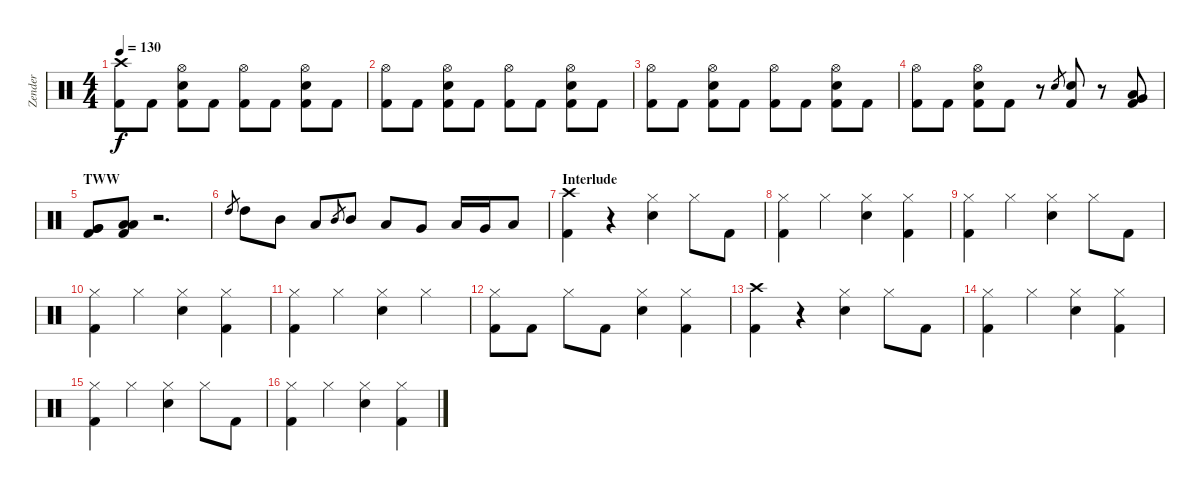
\track ("Zender" "Zender") {instrument percussion}
\staff {score}
\articulation defaults
\ts (4 4)
\tempo 130
\clef neutral
\ks c
("Crash high (hit)" "Kick (hit) 2").8{dy f} "Kick (hit) 2".8 ("Electric Snare (hit)" "Hi-Hat (open)" "Kick (hit) 2").8 "Kick (hit) 2".8 ("Hi-Hat (open)" "Kick (hit) 2").8 "Kick (hit) 2".8 ("Electric Snare (hit)" "Hi-Hat (open)" "Kick (hit) 2").8 "Kick (hit) 2".8 |
("Hi-Hat (open)" "Kick (hit) 2").8 "Kick (hit) 2".8 ("Electric Snare (hit)" "Hi-Hat (open)" "Kick (hit) 2").8 "Kick (hit) 2".8 ("Hi-Hat (open)" "Kick (hit) 2").8 "Kick (hit) 2".8 ("Electric Snare (hit)" "Hi-Hat (open)" "Kick (hit) 2").8 "Kick (hit) 2".8 |
("Hi-Hat (open)" "Kick (hit) 2").8 "Kick (hit) 2".8 ("Electric Snare (hit)" "Hi-Hat (open)" "Kick (hit) 2").8 "Kick (hit) 2".8 ("Hi-Hat (open)" "Kick (hit) 2").8 "Kick (hit) 2".8 ("Electric Snare (hit)" "Hi-Hat (open)" "Kick (hit) 2").8 "Kick (hit) 2".8 |
("Hi-Hat (open)" "Kick (hit) 2").8 "Kick (hit) 2".8 ("Electric Snare (hit)" "Hi-Hat (open)" "Kick (hit) 2").8 "Kick (hit) 2".8 r.8 "Electric Snare (hit)".8{gr} ("Electric Snare (hit)" "Kick (hit) 2").8 r.8 ("Low Tom (hit)" "Very Low Tom (hit)" "Kick (hit) 2").8 |
\section ("" "TWW")
("Very Low Tom (hit)" "Very Low Tom (hit)" "Kick (hit) 2").8 ("Low Floor Tom (hit)" "Low Floor Tom (hit)" "Kick (hit) 2").8 r.2{d} |
"High Tom (hit)".8{gr} "High Tom (hit)".8{volume 11} "Mid Tom (hit)".8 "Low Tom (hit)".8 "Mid Tom (hit)".8{gr} "Mid Tom (hit)".8 "Low Tom (hit)".8 "Very Low Tom (hit)".8 "Low Floor Tom (hit)".16 "Very Low Tom (hit)".16 "Low Floor Tom (hit)".8 |
\section ("" "Interlude")
("Crash high (hit)" "Kick (hit) 2").4 r.4 ("Electric Snare (hit)" "Hi-Hat (closed)").4 "Hi-Hat (closed)".8 "Kick (hit) 2".8 |
("Hi-Hat (closed)" "Kick (hit) 2").4 "Hi-Hat (closed)".4 ("Electric Snare (hit)" "Hi-Hat (closed)").4 ("Hi-Hat (closed)" "Kick (hit) 2").4 |
("Hi-Hat (closed)" "Kick (hit) 2").4 "Hi-Hat (closed)".4 ("Electric Snare (hit)" "Hi-Hat (closed)").4 "Hi-Hat (closed)".8 "Kick (hit) 2".8 |
("Hi-Hat (closed)" "Kick (hit) 2").4 "Hi-Hat (closed)".4 ("Electric Snare (hit)" "Hi-Hat (closed)").4 ("Hi-Hat (closed)" "Kick (hit) 2").4 |
("Hi-Hat (closed)" "Kick (hit) 2").4 "Hi-Hat (closed)".4 ("Electric Snare (hit)" "Hi-Hat (closed)").4 "Hi-Hat (closed)".4 |
("Hi-Hat (closed)" "Kick (hit) 2").8 "Kick (hit) 2".8 "Hi-Hat (closed)".8 "Kick (hit) 2".8 ("Electric Snare (hit)" "Hi-Hat (closed)").4 ("Hi-Hat (closed)" "Kick (hit) 2").4 |
("Crash high (hit)" "Kick (hit) 2").4 r.4 ("Electric Snare (hit)" "Hi-Hat (closed)").4 "Hi-Hat (closed)".8 "Kick (hit) 2".8 |
("Hi-Hat (closed)" "Kick (hit) 2").4 "Hi-Hat (closed)".4 ("Electric Snare (hit)" "Hi-Hat (closed)").4 ("Hi-Hat (closed)" "Kick (hit) 2").4 |
("Hi-Hat (closed)" "Kick (hit) 2").4 "Hi-Hat (closed)".4 ("Electric Snare (hit)" "Hi-Hat (closed)").4 "Hi-Hat (closed)".8 "Kick (hit) 2".8 |
("Hi-Hat (closed)" "Kick (hit) 2").4 "Hi-Hat (closed)".4 ("Electric Snare (hit)" "Hi-Hat (closed)").4 ("Hi-Hat (closed)" "Kick (hit) 2").4
